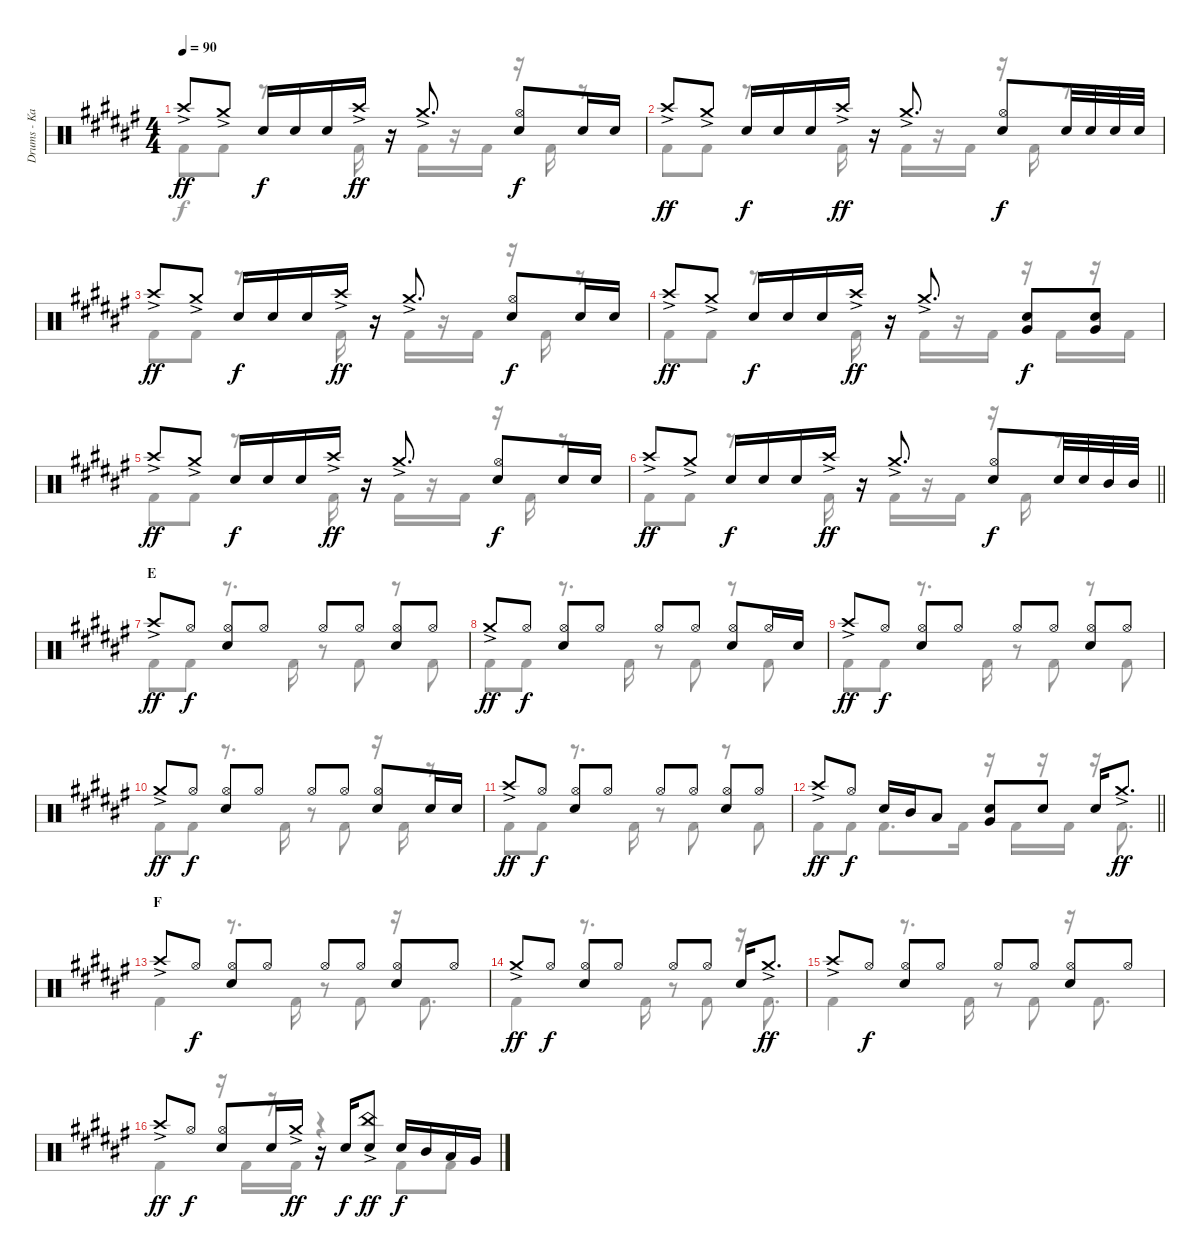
\track ("Drums - Kai" "Drums - Ka") {instrument percussion}
\staff {score}
\articulation defaults
\voice
\ts (4 4)
\tempo 90
\clef neutral
\ks f# "Crash high (hit)"{ac}.8{dy ff} "Crash medium (hit)"{ac}.8 "Snare (hit) 2".16{dy f} "Snare (hit) 2".16 "Snare (hit) 2".16 "Crash high (hit)"{ac}.16{dy ff}
r.16 "Crash medium (hit)"{ac}.8{d} ("Hi-Hat (open)" "Snare (hit) 2").8{dy f} "Snare (hit) 2".16 "Snare (hit) 2".16 |
"Crash high (hit)"{ac}.8{dy ff} "Crash medium (hit)"{ac}.8 "Snare (hit) 2".16{dy f} "Snare (hit) 2".16 "Snare (hit) 2".16 "Crash high (hit)"{ac}.16{dy ff} r.16 "Crash medium (hit)"{ac}.8{d} ("Hi-Hat (open)" "Snare (hit) 2").8{dy f} "Snare (hit) 2".32 "Snare (hit) 2".32 "Snare (hit) 2".32 "Snare (hit) 2".32 |
"Crash high (hit)"{ac}.8{dy ff} "Crash medium (hit)"{ac}.8 "Snare (hit) 2".16{dy f} "Snare (hit) 2".16 "Snare (hit) 2".16 "Crash high (hit)"{ac}.16{dy ff} r.16 "Crash medium (hit)"{ac}.8{d} ("Hi-Hat (open)" "Snare (hit) 2").8{dy f} "Snare (hit) 2".16 "Snare (hit) 2".16 |
"Crash high (hit)"{ac}.8{dy ff} "Crash medium (hit)"{ac}.8 "Snare (hit) 2".16{dy f} "Snare (hit) 2".16 "Snare (hit) 2".16 "Crash high (hit)"{ac}.16{dy ff} r.16 "Crash medium (hit)"{ac}.8{d} ("Very Low Tom (hit)" "Snare (hit) 2").8{dy f} ("Very Low Tom (hit)" "Snare (hit) 2").8 |
"Crash high (hit)"{ac}.8{dy ff} "Crash medium (hit)"{ac}.8 "Snare (hit) 2".16{dy f} "Snare (hit) 2".16 "Snare (hit) 2".16 "Crash high (hit)"{ac}.16{dy ff} r.16 "Crash medium (hit)"{ac}.8{d} ("Hi-Hat (open)" "Snare (hit) 2").8{dy f} "Snare (hit) 2".16 "Snare (hit) 2".16 |
\barLineRight lightlight "Crash high (hit)"{ac}.8{dy ff} "Crash medium (hit)"{ac}.8 "Snare (hit) 2".16{dy f} "Snare (hit) 2".16 "Snare (hit) 2".16 "Crash high (hit)"{ac}.16{dy ff}
r.16 "Crash medium (hit)"{ac}.8{d} ("Hi-Hat (open)" "Snare (hit) 2").8{dy f} "Snare (hit) 2".32 "Snare (hit) 2".32 "Mid Tom (hit)".32 "Mid Tom (hit)".32 |
\section ("" "E")
"Crash high (hit)"{ac}.8{dy ff} "Hi-Hat (open)".8{dy f} ("Hi-Hat (open)" "Snare (hit) 2").8 "Hi-Hat (open)".8 "Hi-Hat (open)".8 "Hi-Hat (open)".8 ("Hi-Hat (open)" "Snare (hit) 2").8 "Hi-Hat (open)".8 |
"Crash medium (hit)"{ac}.8{dy ff} "Hi-Hat (open)".8{dy f} ("Hi-Hat (open)" "Snare (hit) 2").8 "Hi-Hat (open)".8 "Hi-Hat (open)".8 "Hi-Hat (open)".8 ("Hi-Hat (open)" "Snare (hit) 2").8 "Hi-Hat (open)".16 "Snare (hit) 2".16 |
"Crash high (hit)"{ac}.8{dy ff} "Hi-Hat (open)".8{dy f} ("Hi-Hat (open)" "Snare (hit) 2").8 "Hi-Hat (open)".8 "Hi-Hat (open)".8 "Hi-Hat (open)".8 ("Hi-Hat (open)" "Snare (hit) 2").8 "Hi-Hat (open)".8 |
"Crash medium (hit)"{ac}.8{dy ff} "Hi-Hat (open)".8{dy f} ("Hi-Hat (open)" "Snare (hit) 2").8 "Hi-Hat (open)".8 "Hi-Hat (open)".8 "Hi-Hat (open)".8 ("Hi-Hat (open)" "Snare (hit) 2").8 "Snare (hit) 2".16 "Snare (hit) 2".16 |
"Crash high (hit)"{ac}.8{dy ff} "Hi-Hat (open)".8{dy f} ("Hi-Hat (open)" "Snare (hit) 2").8 "Hi-Hat (open)".8 "Hi-Hat (open)".8 "Hi-Hat (open)".8 ("Hi-Hat (open)" "Snare (hit) 2").8 "Hi-Hat (open)".8 |
\barLineRight lightlight "Crash high (hit)"{ac}.8{dy ff} "Hi-Hat (open)".8{dy f} "Snare (hit) 2".16 "Mid Tom (hit)".16 "Low Tom (hit)".8
("Very Low Tom (hit)" "Snare (hit) 2").8 "Snare (hit) 2".8 "Snare (hit) 2".16 "Crash medium (hit)"{ac}.8{d dy ff} |
\section ("" "F")
"Crash high (hit)"{ac}.8 "Hi-Hat (open)".8{dy f} ("Hi-Hat (open)" "Snare (hit) 2").8 "Hi-Hat (open)".8 "Hi-Hat (open)".8 "Hi-Hat (open)".8 ("Hi-Hat (open)" "Snare (hit) 2").8 "Hi-Hat (open)".8 |
"Crash medium (hit)"{ac}.8{dy ff} "Hi-Hat (open)".8{dy f} ("Hi-Hat (open)" "Snare (hit) 2").8 "Hi-Hat (open)".8 "Hi-Hat (open)".8 "Hi-Hat (open)".8 "Snare (hit) 2".16 "Crash medium (hit)"{ac}.8{d dy ff} |
"Crash high (hit)"{ac}.8 "Hi-Hat (open)".8{dy f} ("Hi-Hat (open)" "Snare (hit) 2").8 "Hi-Hat (open)".8 "Hi-Hat (open)".8 "Hi-Hat (open)".8 ("Hi-Hat (open)" "Snare (hit) 2").8 "Hi-Hat (open)".8 |
"Crash high (hit)"{ac}.8{dy ff} "Hi-Hat (open)".8{dy f} ("Hi-Hat (open)" "Snare (hit) 2").8 "Snare (hit) 2".16 "Crash medium (hit)"{ac}.16{dy ff} r.16 "Snare (hit) 2".16{dy f} ("China (hit)"{ac} "Snare (hit) 2").8{dy ff} "Snare (hit) 2".16{dy f} "Mid Tom (hit)".16 "Low Tom (hit)".16 "Very Low Tom (hit)".16
\voice
\clef neutral
\ottava regular
\simile none
\ks f# "Kick (hit) 2".8{dy f} "Kick (hit) 2".8
r.8{d} "Kick (hit) 2".16 r.16 "Kick (hit) 2".16 r.16 "Kick (hit) 2".16 r.16 "Kick (hit) 2".16 r.8 |
"Kick (hit) 2".8 "Kick (hit) 2".8 r.8{d} "Kick (hit) 2".16 r.16 "Kick (hit) 2".16 r.16 "Kick (hit) 2".16 r.16 "Kick (hit) 2".16 r.8 |
"Kick (hit) 2".8 "Kick (hit) 2".8 r.8{d} "Kick (hit) 2".16 r.16 "Kick (hit) 2".16 r.16 "Kick (hit) 2".16 r.16 "Kick (hit) 2".16 r.8 |
"Kick (hit) 2".8 "Kick (hit) 2".8 r.8{d} "Kick (hit) 2".16 r.16 "Kick (hit) 2".16 r.16 "Kick (hit) 2".16 r.16 "Kick (hit) 2".16 r.16 "Kick (hit) 2".16 |
"Kick (hit) 2".8 "Kick (hit) 2".8 r.8{d} "Kick (hit) 2".16 r.16 "Kick (hit) 2".16 r.16 "Kick (hit) 2".16 r.16 "Kick (hit) 2".16 r.8 |
\barLineRight lightlight "Kick (hit) 2".8 "Kick (hit) 2".8
r.8{d} "Kick (hit) 2".16 r.16 "Kick (hit) 2".16 r.16 "Kick (hit) 2".16 r.16 "Kick (hit) 2".16 r.8 |
"Kick (hit) 2".8 "Kick (hit) 2".8 r.8{d} "Kick (hit) 2".16 r.8 "Kick (hit) 2".8 r.8 "Kick (hit) 2".8 |
"Kick (hit) 2".8 "Kick (hit) 2".8 r.8{d} "Kick (hit) 2".16 r.8 "Kick (hit) 2".8 r.8 "Kick (hit) 2".8 |
"Kick (hit) 2".8 "Kick (hit) 2".8 r.8{d} "Kick (hit) 2".16 r.8 "Kick (hit) 2".8 r.8 "Kick (hit) 2".8 |
"Kick (hit) 2".8 "Kick (hit) 2".8 r.8{d} "Kick (hit) 2".16 r.8 "Kick (hit) 2".8 r.16 "Kick (hit) 2".16 r.8 |
"Kick (hit) 2".8 "Kick (hit) 2".8 r.8{d} "Kick (hit) 2".16 r.8 "Kick (hit) 2".8 r.8 "Kick (hit) 2".8 |
\barLineRight lightlight "Kick (hit) 2".8 "Kick (hit) 2".8 "Kick (hit) 2".8{d} "Kick (hit) 2".16
r.16 "Kick (hit) 2".16 r.16 "Kick (hit) 2".16 r.16 "Kick (hit) 2".8{d} |
"Kick (hit) 2".4 r.8{d} "Kick (hit) 2".16 r.8 "Kick (hit) 2".8 r.16 "Kick (hit) 2".8{d} |
"Kick (hit) 2".4 r.8{d} "Kick (hit) 2".16 r.8 "Kick (hit) 2".8 r.16 "Kick (hit) 2".8{d} |
"Kick (hit) 2".4 r.8{d} "Kick (hit) 2".16 r.8 "Kick (hit) 2".8 r.16 "Kick (hit) 2".8{d} |
"Kick (hit) 2".4 r.16 "Kick (hit) 2".16 r.16 "Kick (hit) 2".16 r.4 "Kick (hit) 2".8 "Kick (hit) 2".8
